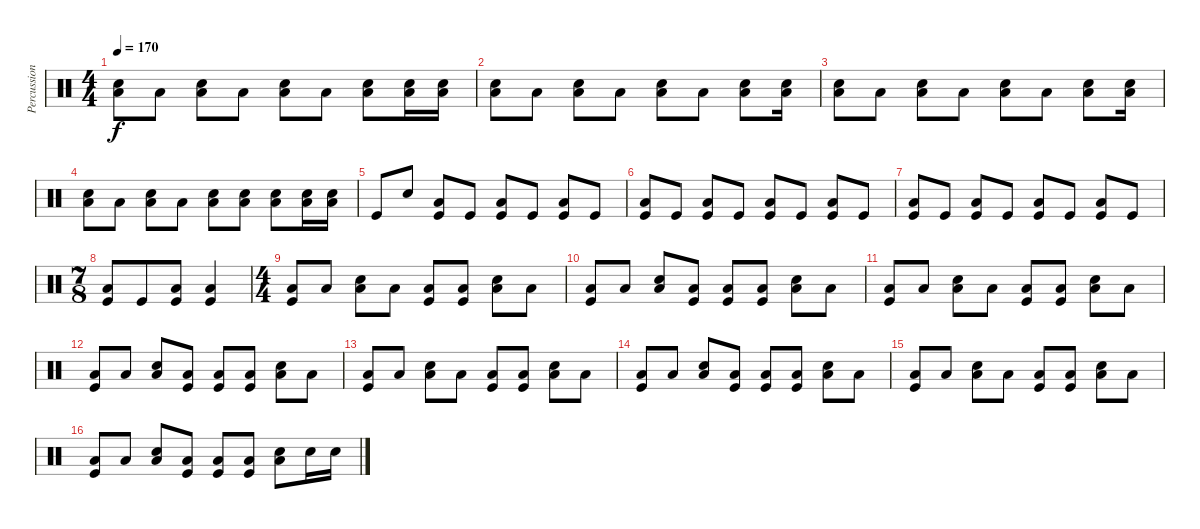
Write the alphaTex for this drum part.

\track ("Percussion" "Percussion") {instrument percussion}
\staff {score}
\articulation defaults
\ts (4 4)
\tempo 170
\clef neutral
\ks c
("Low Floor Tom (hit)" "Electric Snare (hit)").8{dy f} "Low Floor Tom (hit)".8 ("Low Floor Tom (hit)" "Electric Snare (hit)").8 "Low Floor Tom (hit)".8 ("Low Floor Tom (hit)" "Electric Snare (hit)").8 "Low Floor Tom (hit)".8 ("Low Floor Tom (hit)" "Electric Snare (hit)").8 ("Low Floor Tom (hit)" "Electric Snare (hit)").16 ("Low Floor Tom (hit)" "Electric Snare (hit)").16 |
("Low Floor Tom (hit)" "Electric Snare (hit)").8 "Low Floor Tom (hit)".8 ("Low Floor Tom (hit)" "Electric Snare (hit)").8 "Low Floor Tom (hit)".8 ("Low Floor Tom (hit)" "Electric Snare (hit)").8 "Low Floor Tom (hit)".8 ("Low Floor Tom (hit)" "Electric Snare (hit)").8 ("Low Floor Tom (hit)" "Electric Snare (hit)").16 |
("Low Floor Tom (hit)" "Electric Snare (hit)").8 "Low Floor Tom (hit)".8 ("Low Floor Tom (hit)" "Electric Snare (hit)").8 "Low Floor Tom (hit)".8 ("Low Floor Tom (hit)" "Electric Snare (hit)").8 "Low Floor Tom (hit)".8 ("Low Floor Tom (hit)" "Electric Snare (hit)").8 ("Low Floor Tom (hit)" "Electric Snare (hit)").16 |
("Low Floor Tom (hit)" "Electric Snare (hit)").8 "Low Floor Tom (hit)".8 ("Low Floor Tom (hit)" "Electric Snare (hit)").8 "Low Floor Tom (hit)".8 ("Low Floor Tom (hit)" "Electric Snare (hit)").8 ("Low Floor Tom (hit)" "Electric Snare (hit)").8 ("Low Floor Tom (hit)" "Electric Snare (hit)").8 ("Low Floor Tom (hit)" "Electric Snare (hit)").16 ("Low Floor Tom (hit)" "Electric Snare (hit)").16 |
"Kick (hit)".8 "Electric Snare (hit)".8 ("Low Floor Tom (hit)" "Kick (hit)").8 "Kick (hit)".8 ("Low Floor Tom (hit)" "Kick (hit)").8 "Kick (hit)".8 ("Low Floor Tom (hit)" "Kick (hit)").8 "Kick (hit)".8 |
("Low Floor Tom (hit)" "Kick (hit)").8 "Kick (hit)".8 ("Low Floor Tom (hit)" "Kick (hit)").8 "Kick (hit)".8 ("Low Floor Tom (hit)" "Kick (hit)").8 "Kick (hit)".8 ("Low Floor Tom (hit)" "Kick (hit)").8 "Kick (hit)".8 |
("Low Floor Tom (hit)" "Kick (hit)").8 "Kick (hit)".8 ("Low Floor Tom (hit)" "Kick (hit)").8 "Kick (hit)".8 ("Low Floor Tom (hit)" "Kick (hit)").8 "Kick (hit)".8 ("Low Floor Tom (hit)" "Kick (hit)").8 "Kick (hit)".8 |
\ts (7 8)
("Low Floor Tom (hit)" "Kick (hit)").8 "Kick (hit)".8 ("Low Floor Tom (hit)" "Kick (hit)").8 ("Low Floor Tom (hit)" "Kick (hit)").4 |
\ts (4 4)
("Low Floor Tom (hit)" "Kick (hit)").8 "Low Floor Tom (hit)".8 ("Low Floor Tom (hit)" "Electric Snare (hit)").8 "Low Floor Tom (hit)".8 ("Low Floor Tom (hit)" "Kick (hit)").8 ("Low Floor Tom (hit)" "Kick (hit)").8 ("Low Floor Tom (hit)" "Electric Snare (hit)").8 "Low Floor Tom (hit)".8 |
("Low Floor Tom (hit)" "Kick (hit)").8 "Low Floor Tom (hit)".8 ("Low Floor Tom (hit)" "Electric Snare (hit)").8 ("Low Floor Tom (hit)" "Kick (hit)").8 ("Low Floor Tom (hit)" "Kick (hit)").8 ("Low Floor Tom (hit)" "Kick (hit)").8 ("Low Floor Tom (hit)" "Electric Snare (hit)").8 "Low Floor Tom (hit)".8 |
("Low Floor Tom (hit)" "Kick (hit)").8 "Low Floor Tom (hit)".8 ("Low Floor Tom (hit)" "Electric Snare (hit)").8 "Low Floor Tom (hit)".8 ("Low Floor Tom (hit)" "Kick (hit)").8 ("Low Floor Tom (hit)" "Kick (hit)").8 ("Low Floor Tom (hit)" "Electric Snare (hit)").8 "Low Floor Tom (hit)".8 |
("Low Floor Tom (hit)" "Kick (hit)").8 "Low Floor Tom (hit)".8 ("Low Floor Tom (hit)" "Electric Snare (hit)").8 ("Low Floor Tom (hit)" "Kick (hit)").8 ("Low Floor Tom (hit)" "Kick (hit)").8 ("Low Floor Tom (hit)" "Kick (hit)").8 ("Low Floor Tom (hit)" "Electric Snare (hit)").8 "Low Floor Tom (hit)".8 |
("Low Floor Tom (hit)" "Kick (hit)").8 "Low Floor Tom (hit)".8 ("Low Floor Tom (hit)" "Electric Snare (hit)").8 "Low Floor Tom (hit)".8 ("Low Floor Tom (hit)" "Kick (hit)").8 ("Low Floor Tom (hit)" "Kick (hit)").8 ("Low Floor Tom (hit)" "Electric Snare (hit)").8 "Low Floor Tom (hit)".8 |
("Low Floor Tom (hit)" "Kick (hit)").8 "Low Floor Tom (hit)".8 ("Low Floor Tom (hit)" "Electric Snare (hit)").8 ("Low Floor Tom (hit)" "Kick (hit)").8 ("Low Floor Tom (hit)" "Kick (hit)").8 ("Low Floor Tom (hit)" "Kick (hit)").8 ("Low Floor Tom (hit)" "Electric Snare (hit)").8 "Low Floor Tom (hit)".8 |
("Low Floor Tom (hit)" "Kick (hit)").8 "Low Floor Tom (hit)".8 ("Low Floor Tom (hit)" "Electric Snare (hit)").8 "Low Floor Tom (hit)".8 ("Low Floor Tom (hit)" "Kick (hit)").8 ("Low Floor Tom (hit)" "Kick (hit)").8 ("Low Floor Tom (hit)" "Electric Snare (hit)").8 "Low Floor Tom (hit)".8 |
("Low Floor Tom (hit)" "Kick (hit)").8 "Low Floor Tom (hit)".8 ("Low Floor Tom (hit)" "Electric Snare (hit)").8 ("Low Floor Tom (hit)" "Kick (hit)").8 ("Low Floor Tom (hit)" "Kick (hit)").8 ("Low Floor Tom (hit)" "Kick (hit)").8 ("Low Floor Tom (hit)" "Electric Snare (hit)").8 "Electric Snare (hit)".16 "Electric Snare (hit)".16
